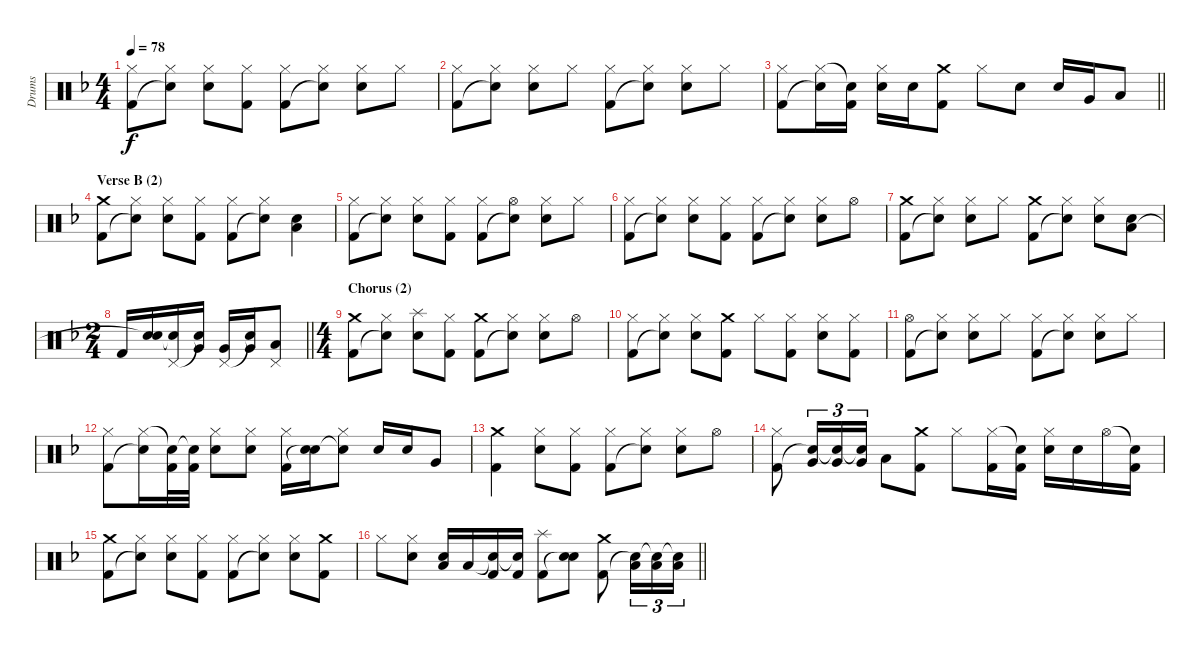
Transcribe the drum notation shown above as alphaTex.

\track ("Drums" "Drums") {instrument percussion}
\staff {score}
\articulation defaults
\ts (4 4)
\tempo 78
\clef neutral
\ks f
("Hi-Hat (closed)" "Kick (hit) 2").8{dy f} ("Hi-Hat (closed)" "Snare (hit)"{t}).8 ("Hi-Hat (closed)" "Electric Snare (hit)").8 ("Hi-Hat (closed)" "Kick (hit) 2").8 ("Hi-Hat (closed)" "Kick (hit) 2").8 ("Hi-Hat (closed)" "Snare (hit)"{t}).8 ("Hi-Hat (closed)" "Electric Snare (hit)").8 "Hi-Hat (closed)".8 |
("Hi-Hat (closed)" "Kick (hit) 2").8 ("Hi-Hat (closed)" "Snare (hit)"{t}).8 ("Hi-Hat (closed)" "Electric Snare (hit)").8 "Hi-Hat (closed)".8 ("Hi-Hat (closed)" "Kick (hit) 2").8 ("Hi-Hat (closed)" "Snare (hit)"{t}).8 ("Hi-Hat (closed)" "Electric Snare (hit)").8 "Hi-Hat (closed)".8 |
\barLineRight lightlight
("Hi-Hat (closed)" "Kick (hit) 2").8 ("Hi-Hat (closed)" "Snare (hit)"{t}).16 ("Snare (hit)"{t} "Kick (hit) 2").16 ("Hi-Hat (closed)" "Electric Snare (hit)").16 "Electric Snare (hit)".16 ("Crash medium (hit)" "Kick (hit) 2").8 "Hi-Hat (closed)".8 "Electric Snare (hit)".8 "Electric Snare (hit)".16 "Very Low Tom (hit)".16 "Low Floor Tom (hit)".8 |
\section ("" "Verse B (2)")
("Crash medium (hit)" "Kick (hit) 2").8 ("Hi-Hat (closed)" "Snare (hit)"{t}).8 ("Hi-Hat (closed)" "Electric Snare (hit)").8 ("Hi-Hat (closed)" "Kick (hit) 2").8 ("Hi-Hat (closed)" "Kick (hit) 2").8 ("Hi-Hat (closed)" "Snare (hit)"{t}).8 ("Electric Snare (hit)" "Low Floor Tom (hit)").4 |
("Hi-Hat (closed)" "Kick (hit) 2").8 ("Hi-Hat (closed)" "Snare (hit)"{t}).8 ("Hi-Hat (closed)" "Electric Snare (hit)").8 ("Hi-Hat (closed)" "Kick (hit) 2").8 ("Hi-Hat (closed)" "Kick (hit) 2").8 ("Hi-Hat (open)" "Snare (hit)"{t}).8 ("Hi-Hat (closed)" "Electric Snare (hit)").8 "Hi-Hat (closed)".8 |
("Hi-Hat (closed)" "Kick (hit) 2").8 ("Hi-Hat (closed)" "Snare (hit)"{t}).8 ("Hi-Hat (closed)" "Electric Snare (hit)").8 ("Hi-Hat (closed)" "Kick (hit) 2").8 ("Hi-Hat (closed)" "Kick (hit) 2").8 ("Hi-Hat (closed)" "Snare (hit)"{t}).8 ("Hi-Hat (closed)" "Electric Snare (hit)").8 "Hi-Hat (open)".8 |
("Crash medium (hit)" "Kick (hit) 2").8 ("Hi-Hat (closed)" "Snare (hit)"{t}).8 ("Hi-Hat (closed)" "Electric Snare (hit)").8 "Hi-Hat (closed)".8 ("Crash medium (hit)" "Kick (hit) 2").8 ("Hi-Hat (closed)" "Snare (hit)"{t}).8 ("Hi-Hat (closed)" "Electric Snare (hit)").8 ("Electric Snare (hit)" "Low Tom (hit)").8 |
\ts (2 4)
\barLineRight lightlight "Kick (hit) 2".16
("Electric Snare (hit)" "Snare (hit)"{t}).16 ("Pedal Hi-Hat (hit)" "Snare (hit)"{t}).16 ("Snare (hit)"{t} "Very Low Tom (hit)").16 ("Pedal Hi-Hat (hit)" "Very Low Tom (hit)").16 ("Snare (hit)"{t} "Very Low Tom (hit)").16 ("Pedal Hi-Hat (hit)" "Low Floor Tom (hit)").8 |
\ts (4 4)
\section ("" "Chorus (2)")
("Crash medium (hit)" "Kick (hit) 2").8 ("Hi-Hat (closed)" "Snare (hit)"{t}).8 ("Splash (hit)" "Electric Snare (hit)").8 ("Hi-Hat (closed)" "Kick (hit) 2").8 ("Crash medium (hit)" "Kick (hit) 2").8 ("Hi-Hat (closed)" "Snare (hit)"{t}).8 ("Hi-Hat (closed)" "Electric Snare (hit)").8 "Hi-Hat (open)".8 |
("Hi-Hat (closed)" "Kick (hit) 2").8 ("Hi-Hat (closed)" "Snare (hit)"{t}).8 ("Hi-Hat (closed)" "Electric Snare (hit)").8 ("Crash medium (hit)" "Kick (hit) 2").8 "Hi-Hat (closed)".8 ("Hi-Hat (closed)" "Kick (hit) 2").8 ("Hi-Hat (closed)" "Electric Snare (hit)").8 ("Hi-Hat (closed)" "Kick (hit) 2").8 |
("Hi-Hat (open)" "Kick (hit) 2").8 ("Hi-Hat (closed)" "Snare (hit)"{t}).8 ("Hi-Hat (closed)" "Electric Snare (hit)").8 "Hi-Hat (closed)".8 ("Hi-Hat (closed)" "Kick (hit) 2").8 ("Hi-Hat (closed)" "Snare (hit)"{t}).8 ("Hi-Hat (closed)" "Electric Snare (hit)").8 "Hi-Hat (closed)".8 |
("Hi-Hat (closed)" "Kick (hit) 2").8 ("Hi-Hat (closed)" "Snare (hit)"{t}).16 ("Snare (hit)"{t} "Kick (hit) 2").32 ("Snare (hit)"{t} "Kick (hit) 2").32 ("Hi-Hat (closed)" "Electric Snare (hit)").8 ("Hi-Hat (closed)" "Electric Snare (hit)").8 ("Hi-Hat (closed)" "Kick (hit) 2").16 ("Electric Snare (hit)" "Snare (hit)"{t}).16 ("Hi-Hat (closed)" "Snare (hit)"{t}).8 "Electric Snare (hit)".16 "Electric Snare (hit)".16 "Very Low Tom (hit)".8 |
("Crash medium (hit)" "Kick (hit) 2").4 ("Hi-Hat (closed)" "Electric Snare (hit)").8 ("Hi-Hat (closed)" "Kick (hit) 2").8 ("Hi-Hat (closed)" "Kick (hit) 2").8 ("Hi-Hat (closed)" "Snare (hit)"{t}).8 ("Hi-Hat (closed)" "Electric Snare (hit)").8 "Hi-Hat (open)".8 |
("Hi-Hat (closed)" "Kick (hit) 2").8 ("Very Low Tom (hit)" "Snare (hit)"{t}).16{tu (3 2)} ("Very Low Tom (hit)" "Snare (hit)"{t}).16{tu (3 2)} ("Very Low Tom (hit)" "Snare (hit)"{t}).16{tu (3 2)} "Low Floor Tom (hit)".8 ("Crash medium (hit)" "Kick (hit) 2").8 "Hi-Hat (closed)".8 ("Hi-Hat (closed)" "Kick (hit) 2").16 ("Snare (hit)"{t} "Kick (hit) 2").16 ("Hi-Hat (closed)" "Electric Snare (hit)").16 "Electric Snare (hit)".16 "Hi-Hat (open)".16 ("Snare (hit)"{t} "Kick (hit) 2").16 |
("Crash medium (hit)" "Kick (hit) 2").8 ("Hi-Hat (closed)" "Snare (hit)"{t}).8 ("Hi-Hat (closed)" "Electric Snare (hit)").8 ("Hi-Hat (closed)" "Kick (hit) 2").8 ("Hi-Hat (closed)" "Kick (hit) 2").8 ("Hi-Hat (closed)" "Snare (hit)"{t}).8 ("Hi-Hat (closed)" "Electric Snare (hit)").8 ("Crash medium (hit)" "Kick (hit) 2").8 |
\barLineRight lightlight "Hi-Hat (closed)".8
("Hi-Hat (closed)" "Electric Snare (hit)").8 ("Electric Snare (hit)" "Low Tom (hit)").16 "Low Tom (hit)".16 ("Snare (hit)"{t} "Kick (hit) 2").16 ("Snare (hit)"{t} "Kick (hit) 2").16 ("Splash (hit)" "Kick (hit) 2").8 ("Electric Snare (hit)" "Snare (hit)"{t}).8 ("Crash medium (hit)" "Kick (hit) 2").8 ("Low Floor Tom (hit)" "Snare (hit)"{t}).16{tu (3 2)} ("Low Floor Tom (hit)" "Snare (hit)"{t}).16{tu (3 2)} ("Low Floor Tom (hit)" "Snare (hit)"{t}).16{tu (3 2)}
